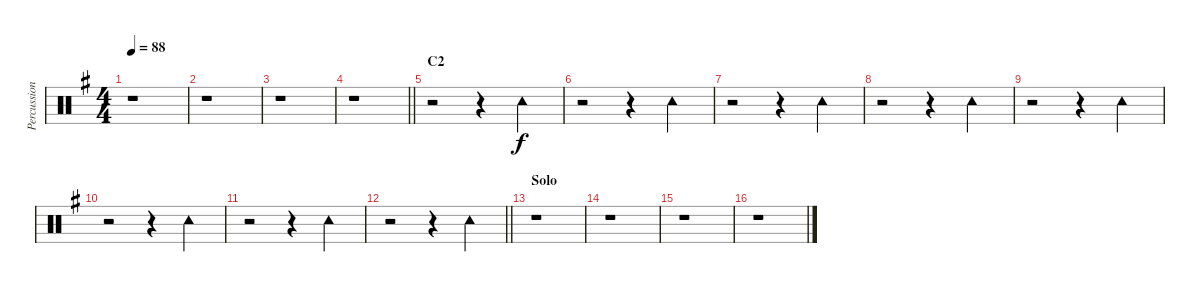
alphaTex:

\track ("Percussion" "Percussion") {instrument percussion}
\staff {score}
\articulation defaults
\ts (4 4)
\tempo 88
\clef neutral
\ks g
r.1{dy f} |
r.1 |
r.1 |
\barLineRight lightlight
r.1 |
\section ("" "C2")
r.2 r.4 "Tambourine (hit)".4 |
r.2 r.4 "Tambourine (hit)".4 |
r.2 r.4 "Tambourine (hit)".4 |
r.2 r.4 "Tambourine (hit)".4 |
r.2 r.4 "Tambourine (hit)".4 |
r.2 r.4 "Tambourine (hit)".4 |
r.2 r.4 "Tambourine (hit)".4 |
\barLineRight lightlight
r.2 r.4 "Tambourine (hit)".4 |
\section ("" "Solo")
r.1 |
r.1 |
r.1 |
r.1
